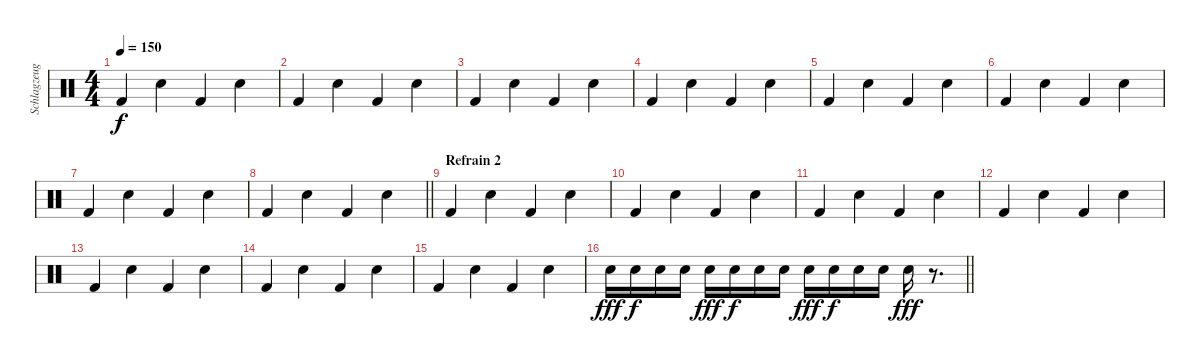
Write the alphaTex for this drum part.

\track ("Schlagzeug" "Schlagzeug") {instrument percussion}
\staff {score}
\articulation defaults
\ts (4 4)
\tempo 150
\clef neutral
\ks c "Kick (hit) 2".4{dy f} "Electric Snare (hit)".4 "Kick (hit) 2".4 "Electric Snare (hit)".4
|
"Kick (hit) 2".4 "Electric Snare (hit)".4 "Kick (hit) 2".4 "Electric Snare (hit)".4 |
"Kick (hit) 2".4 "Electric Snare (hit)".4 "Kick (hit) 2".4 "Electric Snare (hit)".4 |
"Kick (hit) 2".4 "Electric Snare (hit)".4 "Kick (hit) 2".4 "Electric Snare (hit)".4 |
"Kick (hit) 2".4 "Electric Snare (hit)".4 "Kick (hit) 2".4 "Electric Snare (hit)".4 |
"Kick (hit) 2".4 "Electric Snare (hit)".4 "Kick (hit) 2".4 "Electric Snare (hit)".4 |
"Kick (hit) 2".4 "Electric Snare (hit)".4 "Kick (hit) 2".4 "Electric Snare (hit)".4 |
\barLineRight lightlight "Kick (hit) 2".4 "Electric Snare (hit)".4 "Kick (hit) 2".4 "Electric Snare (hit)".4
|
\section ("" "Refrain 2")
"Kick (hit) 2".4 "Electric Snare (hit)".4 "Kick (hit) 2".4 "Electric Snare (hit)".4 |
"Kick (hit) 2".4 "Electric Snare (hit)".4 "Kick (hit) 2".4 "Electric Snare (hit)".4 |
"Kick (hit) 2".4 "Electric Snare (hit)".4 "Kick (hit) 2".4 "Electric Snare (hit)".4 |
"Kick (hit) 2".4 "Electric Snare (hit)".4 "Kick (hit) 2".4 "Electric Snare (hit)".4 |
"Kick (hit) 2".4 "Electric Snare (hit)".4 "Kick (hit) 2".4 "Electric Snare (hit)".4 |
"Kick (hit) 2".4 "Electric Snare (hit)".4 "Kick (hit) 2".4 "Electric Snare (hit)".4 |
"Kick (hit) 2".4 "Electric Snare (hit)".4 "Kick (hit) 2".4 "Electric Snare (hit)".4 |
\barLineRight lightlight "Electric Snare (hit)".16{dy fff} "Electric Snare (hit)".16{dy f} "Electric Snare (hit)".16 "Electric Snare (hit)".16 "Electric Snare (hit)".16{dy fff} "Electric Snare (hit)".16{dy f} "Electric Snare (hit)".16 "Electric Snare (hit)".16 "Electric Snare (hit)".16{dy fff} "Electric Snare (hit)".16{dy f} "Electric Snare (hit)".16 "Electric Snare (hit)".16 "Electric Snare (hit)".16{dy fff}
r.8{d}
